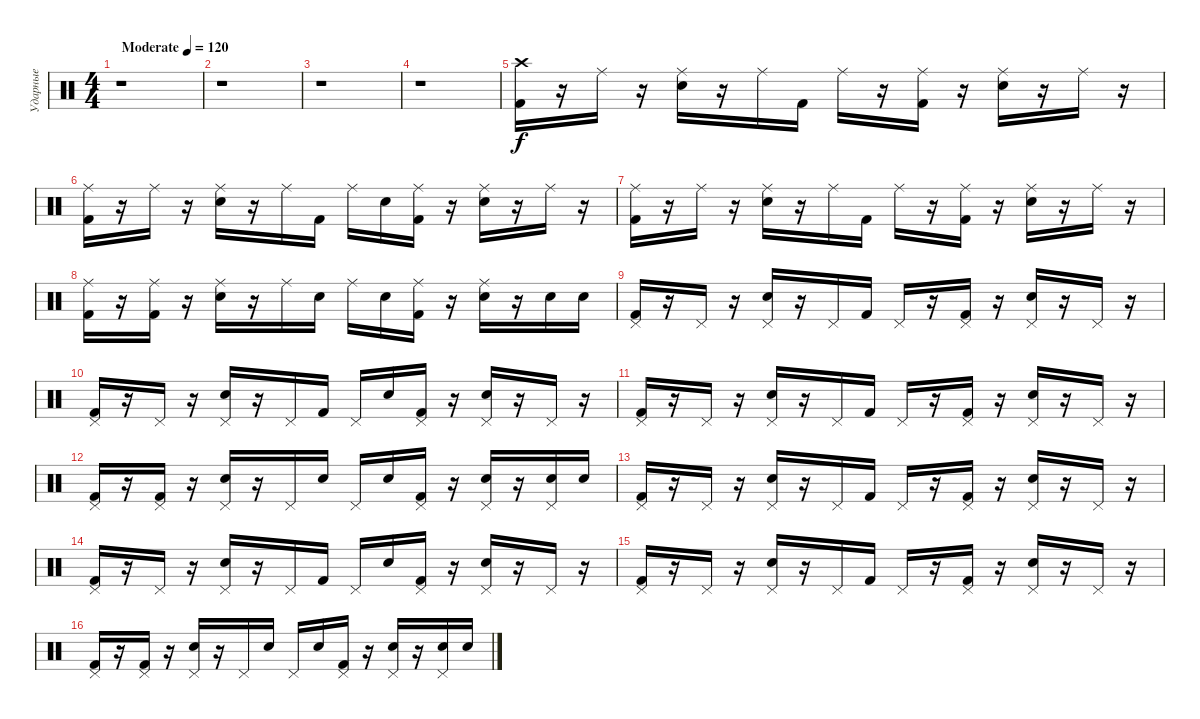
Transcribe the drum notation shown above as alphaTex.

\track ("Ударные" "Ударные") {instrument percussion}
\staff {score}
\articulation defaults
\ts (4 4)
\tempo (120 "Moderate")
\clef neutral
\ks c
r.1{dy f} |
r.1 |
r.1 |
r.1 |
("Crash high (hit)" "Kick (hit) 2").16 r.16 "Ride (middle)".16 r.16 ("Ride (middle)" "Electric Snare (hit)").16 r.16 "Ride (middle)".16 "Kick (hit) 2".16 "Ride (middle)".16 r.16 ("Ride (middle)" "Kick (hit) 2").16 r.16 ("Ride (middle)" "Electric Snare (hit)").16 r.16 "Ride (middle)".16 r.16 |
("Ride (middle)" "Kick (hit) 2").16 r.16 "Ride (middle)".16 r.16 ("Ride (middle)" "Electric Snare (hit)").16 r.16 "Ride (middle)".16 "Kick (hit) 2".16 "Ride (middle)".16 "Electric Snare (hit)".16 ("Ride (middle)" "Kick (hit) 2").16 r.16 ("Ride (middle)" "Electric Snare (hit)").16 r.16 "Ride (middle)".16 r.16 |
("Ride (middle)" "Kick (hit) 2").16 r.16 "Ride (middle)".16 r.16 ("Ride (middle)" "Electric Snare (hit)").16 r.16 "Ride (middle)".16 "Kick (hit) 2".16 "Ride (middle)".16 r.16 ("Ride (middle)" "Kick (hit) 2").16 r.16 ("Ride (middle)" "Electric Snare (hit)").16 r.16 "Ride (middle)".16 r.16 |
("Ride (middle)" "Kick (hit) 2").16 r.16 ("Ride (middle)" "Kick (hit) 2").16 r.16 ("Ride (middle)" "Electric Snare (hit)").16 r.16 "Ride (middle)".16 "Electric Snare (hit)".16 "Ride (middle)".16 "Electric Snare (hit)".16 ("Ride (middle)" "Kick (hit) 2").16 r.16 ("Ride (middle)" "Electric Snare (hit)").16 r.16 "Electric Snare (hit)".16 "Electric Snare (hit)".16 |
("Pedal Hi-Hat (hit)" "Kick (hit) 2").16 r.16 "Pedal Hi-Hat (hit)".16 r.16 ("Pedal Hi-Hat (hit)" "Electric Snare (hit)").16 r.16 "Pedal Hi-Hat (hit)".16 "Kick (hit) 2".16 "Pedal Hi-Hat (hit)".16 r.16 ("Pedal Hi-Hat (hit)" "Kick (hit) 2").16 r.16 ("Pedal Hi-Hat (hit)" "Electric Snare (hit)").16 r.16 "Pedal Hi-Hat (hit)".16 r.16 |
("Pedal Hi-Hat (hit)" "Kick (hit) 2").16 r.16 "Pedal Hi-Hat (hit)".16 r.16 ("Pedal Hi-Hat (hit)" "Electric Snare (hit)").16 r.16 "Pedal Hi-Hat (hit)".16 "Kick (hit) 2".16 "Pedal Hi-Hat (hit)".16 "Electric Snare (hit)".16 ("Pedal Hi-Hat (hit)" "Kick (hit) 2").16 r.16 ("Pedal Hi-Hat (hit)" "Electric Snare (hit)").16 r.16 "Pedal Hi-Hat (hit)".16 r.16 |
("Pedal Hi-Hat (hit)" "Kick (hit) 2").16 r.16 "Pedal Hi-Hat (hit)".16 r.16 ("Pedal Hi-Hat (hit)" "Electric Snare (hit)").16 r.16 "Pedal Hi-Hat (hit)".16 "Kick (hit) 2".16 "Pedal Hi-Hat (hit)".16 r.16 ("Pedal Hi-Hat (hit)" "Kick (hit) 2").16 r.16 ("Pedal Hi-Hat (hit)" "Electric Snare (hit)").16 r.16 "Pedal Hi-Hat (hit)".16 r.16 |
("Pedal Hi-Hat (hit)" "Kick (hit) 2").16 r.16 ("Pedal Hi-Hat (hit)" "Kick (hit) 2").16 r.16 ("Pedal Hi-Hat (hit)" "Electric Snare (hit)").16 r.16 "Pedal Hi-Hat (hit)".16 "Electric Snare (hit)".16 "Pedal Hi-Hat (hit)".16 "Electric Snare (hit)".16 ("Pedal Hi-Hat (hit)" "Kick (hit) 2").16 r.16 ("Pedal Hi-Hat (hit)" "Electric Snare (hit)").16 r.16 ("Pedal Hi-Hat (hit)" "Electric Snare (hit)").16 "Electric Snare (hit)".16 |
("Pedal Hi-Hat (hit)" "Kick (hit) 2").16 r.16 "Pedal Hi-Hat (hit)".16 r.16 ("Pedal Hi-Hat (hit)" "Electric Snare (hit)").16 r.16 "Pedal Hi-Hat (hit)".16 "Kick (hit) 2".16 "Pedal Hi-Hat (hit)".16 r.16 ("Pedal Hi-Hat (hit)" "Kick (hit) 2").16 r.16 ("Pedal Hi-Hat (hit)" "Electric Snare (hit)").16 r.16 "Pedal Hi-Hat (hit)".16 r.16 |
("Pedal Hi-Hat (hit)" "Kick (hit) 2").16 r.16 "Pedal Hi-Hat (hit)".16 r.16 ("Pedal Hi-Hat (hit)" "Electric Snare (hit)").16 r.16 "Pedal Hi-Hat (hit)".16 "Kick (hit) 2".16 "Pedal Hi-Hat (hit)".16 "Electric Snare (hit)".16 ("Pedal Hi-Hat (hit)" "Kick (hit) 2").16 r.16 ("Pedal Hi-Hat (hit)" "Electric Snare (hit)").16 r.16 "Pedal Hi-Hat (hit)".16 r.16 |
("Pedal Hi-Hat (hit)" "Kick (hit) 2").16 r.16 "Pedal Hi-Hat (hit)".16 r.16 ("Pedal Hi-Hat (hit)" "Electric Snare (hit)").16 r.16 "Pedal Hi-Hat (hit)".16 "Kick (hit) 2".16 "Pedal Hi-Hat (hit)".16 r.16 ("Pedal Hi-Hat (hit)" "Kick (hit) 2").16 r.16 ("Pedal Hi-Hat (hit)" "Electric Snare (hit)").16 r.16 "Pedal Hi-Hat (hit)".16 r.16 |
("Pedal Hi-Hat (hit)" "Kick (hit) 2").16 r.16 ("Pedal Hi-Hat (hit)" "Kick (hit) 2").16 r.16 ("Pedal Hi-Hat (hit)" "Electric Snare (hit)").16 r.16 "Pedal Hi-Hat (hit)".16 "Electric Snare (hit)".16 "Pedal Hi-Hat (hit)".16 "Electric Snare (hit)".16 ("Pedal Hi-Hat (hit)" "Kick (hit) 2").16 r.16 ("Pedal Hi-Hat (hit)" "Electric Snare (hit)").16 r.16 ("Pedal Hi-Hat (hit)" "Electric Snare (hit)").16 "Electric Snare (hit)".16
